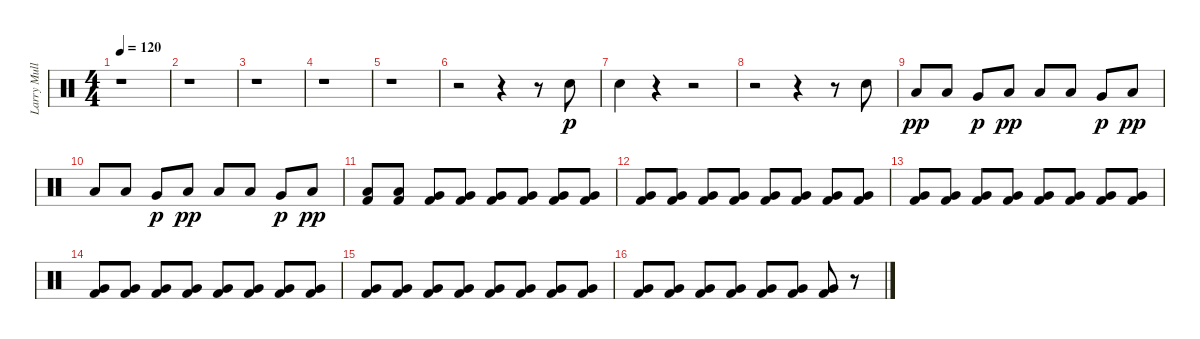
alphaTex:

\track ("Larry Mullen jr." "Larry Mull") {instrument percussion}
\staff {score}
\articulation defaults
\ts (4 4)
\tempo 120
\clef neutral
\ks c
r.1{dy p} |
r.1 |
r.1 |
r.1 |
r.1 |
r.2 r.4 r.8 "Electric Snare (hit)".8 |
"Electric Snare (hit)".4 r.4 r.2 |
r.2 r.4 r.8 "Electric Snare (hit)".8 |
"Low Floor Tom (hit)".8{dy pp} "Low Floor Tom (hit)".8 "Very Low Tom (hit)".8{dy p} "Low Floor Tom (hit)".8{dy pp} "Low Floor Tom (hit)".8 "Low Floor Tom (hit)".8 "Very Low Tom (hit)".8{dy p} "Low Floor Tom (hit)".8{dy pp} |
"Low Floor Tom (hit)".8 "Low Floor Tom (hit)".8 "Very Low Tom (hit)".8{dy p} "Low Floor Tom (hit)".8{dy pp} "Low Floor Tom (hit)".8 "Low Floor Tom (hit)".8 "Very Low Tom (hit)".8{dy p} "Low Floor Tom (hit)".8{dy pp} |
("Low Floor Tom (hit)" "Kick (hit) 2").8 ("Low Floor Tom (hit)" "Kick (hit) 2").8 ("Very Low Tom (hit)" "Kick (hit) 2").8 ("Very Low Tom (hit)" "Kick (hit) 2").8 ("Very Low Tom (hit)" "Kick (hit) 2").8 ("Very Low Tom (hit)" "Kick (hit) 2").8 ("Very Low Tom (hit)" "Kick (hit) 2").8 ("Very Low Tom (hit)" "Kick (hit) 2").8 |
("Very Low Tom (hit)" "Kick (hit) 2").8 ("Very Low Tom (hit)" "Kick (hit) 2").8 ("Very Low Tom (hit)" "Kick (hit) 2").8 ("Very Low Tom (hit)" "Kick (hit) 2").8 ("Very Low Tom (hit)" "Kick (hit) 2").8 ("Very Low Tom (hit)" "Kick (hit) 2").8 ("Very Low Tom (hit)" "Kick (hit) 2").8 ("Very Low Tom (hit)" "Kick (hit) 2").8 |
("Very Low Tom (hit)" "Kick (hit) 2").8 ("Very Low Tom (hit)" "Kick (hit) 2").8 ("Very Low Tom (hit)" "Kick (hit) 2").8 ("Very Low Tom (hit)" "Kick (hit) 2").8 ("Very Low Tom (hit)" "Kick (hit) 2").8 ("Very Low Tom (hit)" "Kick (hit) 2").8 ("Very Low Tom (hit)" "Kick (hit) 2").8 ("Very Low Tom (hit)" "Kick (hit) 2").8 |
("Very Low Tom (hit)" "Kick (hit) 2").8 ("Very Low Tom (hit)" "Kick (hit) 2").8 ("Very Low Tom (hit)" "Kick (hit) 2").8 ("Very Low Tom (hit)" "Kick (hit) 2").8 ("Very Low Tom (hit)" "Kick (hit) 2").8 ("Very Low Tom (hit)" "Kick (hit) 2").8 ("Very Low Tom (hit)" "Kick (hit) 2").8 ("Very Low Tom (hit)" "Kick (hit) 2").8 |
("Very Low Tom (hit)" "Kick (hit) 2").8 ("Very Low Tom (hit)" "Kick (hit) 2").8 ("Very Low Tom (hit)" "Kick (hit) 2").8 ("Very Low Tom (hit)" "Kick (hit) 2").8 ("Very Low Tom (hit)" "Kick (hit) 2").8 ("Very Low Tom (hit)" "Kick (hit) 2").8 ("Very Low Tom (hit)" "Kick (hit) 2").8 ("Very Low Tom (hit)" "Kick (hit) 2").8 |
("Very Low Tom (hit)" "Kick (hit) 2").8 ("Very Low Tom (hit)" "Kick (hit) 2").8 ("Very Low Tom (hit)" "Kick (hit) 2").8 ("Very Low Tom (hit)" "Kick (hit) 2").8 ("Very Low Tom (hit)" "Kick (hit) 2").8 ("Very Low Tom (hit)" "Kick (hit) 2").8 ("Very Low Tom (hit)" "Kick (hit) 2").8 r.8
